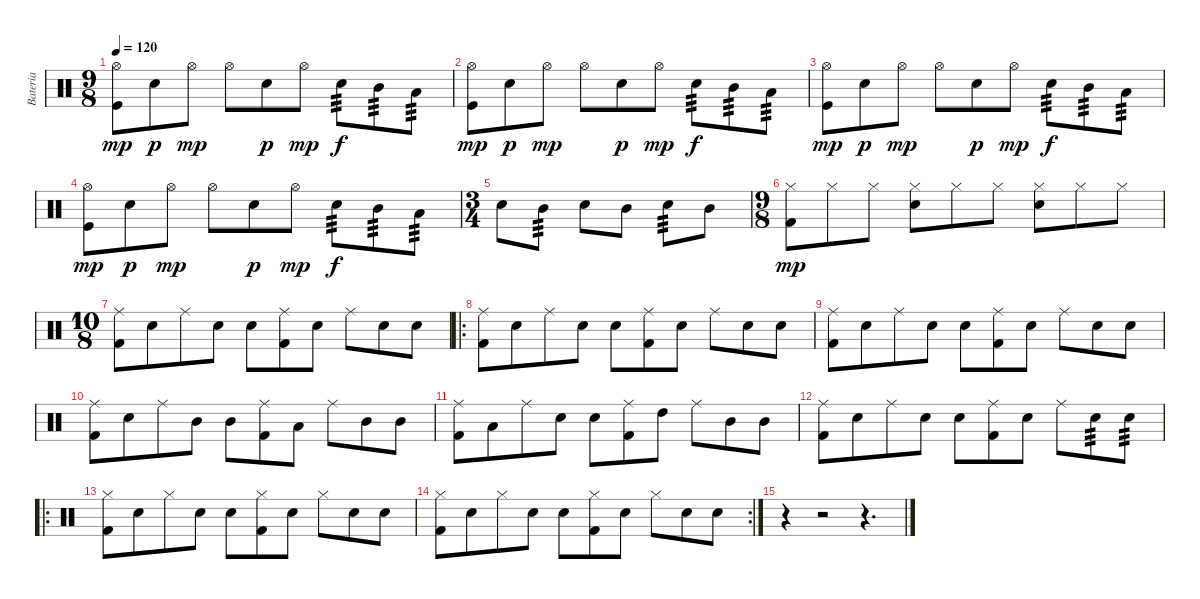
\track ("Bateria" "Bateria") {instrument percussion}
\staff {score}
\articulation defaults
\ts (9 8)
\tempo 120
\clef neutral
\ks c
("Hi-Hat (open)" "Kick (hit)").8{dy mp} "Snare (hit) 2".8{dy p} "Hi-Hat (open)".8{dy mp} "Hi-Hat (open)".8 "Snare (hit) 2".8{dy p} "Hi-Hat (open)".8{dy mp} "Snare (hit) 2".8{tp 3 dy f} "Mid Tom (hit)".8{tp 3} "Low Tom (hit)".8{tp 3} |
("Hi-Hat (open)" "Kick (hit)").8{dy mp} "Snare (hit) 2".8{dy p} "Hi-Hat (open)".8{dy mp} "Hi-Hat (open)".8 "Snare (hit) 2".8{dy p} "Hi-Hat (open)".8{dy mp} "Snare (hit) 2".8{tp 3 dy f} "Mid Tom (hit)".8{tp 3} "Low Tom (hit)".8{tp 3} |
("Hi-Hat (open)" "Kick (hit)").8{dy mp} "Snare (hit) 2".8{dy p} "Hi-Hat (open)".8{dy mp} "Hi-Hat (open)".8 "Snare (hit) 2".8{dy p} "Hi-Hat (open)".8{dy mp} "Snare (hit) 2".8{tp 3 dy f} "Mid Tom (hit)".8{tp 3} "Low Tom (hit)".8{tp 3} |
("Hi-Hat (open)" "Kick (hit)").8{dy mp} "Snare (hit) 2".8{dy p} "Hi-Hat (open)".8{dy mp} "Hi-Hat (open)".8 "Snare (hit) 2".8{dy p} "Hi-Hat (open)".8{dy mp} "Snare (hit) 2".8{tp 3 dy f} "Mid Tom (hit)".8{tp 3} "Low Tom (hit)".8{tp 3} |
\ts (3 4)
"Snare (hit) 2".8 "Mid Tom (hit)".8{tp 3} "Snare (hit) 2".8 "Mid Tom (hit)".8 "Snare (hit) 2".8{tp 3} "Mid Tom (hit)".8 |
\ts (9 8)
("Hi-Hat (closed)" "Kick (hit) 2").8{dy mp} "Hi-Hat (closed)".8 "Hi-Hat (closed)".8 ("Hi-Hat (closed)" "Snare (hit) 2").8 "Hi-Hat (closed)".8 "Hi-Hat (closed)".8 ("Hi-Hat (closed)" "Snare (hit) 2").8 "Hi-Hat (closed)".8 "Hi-Hat (closed)".8 |
\ts (10 8)
("Ride (middle)" "Kick (hit) 2").8 "Snare (hit) 2".8 "Ride (middle)".8 "Snare (hit) 2".8 "Snare (hit) 2".8 ("Ride (middle)" "Kick (hit) 2").8 "Snare (hit) 2".8 "Ride (middle)".8 "Snare (hit) 2".8 "Snare (hit) 2".8 |
\ro
("Ride (middle)" "Kick (hit) 2").8 "Snare (hit) 2".8 "Ride (middle)".8 "Snare (hit) 2".8 "Snare (hit) 2".8 ("Ride (middle)" "Kick (hit) 2").8 "Snare (hit) 2".8 "Ride (middle)".8 "Snare (hit) 2".8 "Snare (hit) 2".8 |
("Ride (middle)" "Kick (hit) 2").8 "Snare (hit) 2".8 "Ride (middle)".8 "Snare (hit) 2".8 "Snare (hit) 2".8 ("Ride (middle)" "Kick (hit) 2").8 "Snare (hit) 2".8 "Ride (middle)".8 "Snare (hit) 2".8 "Snare (hit) 2".8 |
("Ride (middle)" "Kick (hit) 2").8 "Snare (hit) 2".8 "Ride (middle)".8 "Mid Tom (hit)".8 "Mid Tom (hit)".8 ("Ride (middle)" "Kick (hit) 2").8 "Low Tom (hit)".8 "Ride (middle)".8 "Mid Tom (hit)".8 "Mid Tom (hit)".8 |
("Ride (middle)" "Kick (hit) 2").8 "Low Tom (hit)".8 "Ride (middle)".8 "Snare (hit) 2".8 "Snare (hit) 2".8 ("Ride (middle)" "Kick (hit) 2").8 "High Tom (hit)".8 "Ride (middle)".8 "Mid Tom (hit)".8 "Mid Tom (hit)".8 |
("Ride (middle)" "Kick (hit) 2").8 "Snare (hit) 2".8 "Ride (middle)".8 "Snare (hit) 2".8 "Snare (hit) 2".8 ("Ride (middle)" "Kick (hit) 2").8 "Snare (hit) 2".8 "Ride (middle)".8 "Snare (hit) 2".8{tp 3} "Snare (hit) 2".8{tp 3} |
\ro
("Hi-Hat (closed)" "Kick (hit) 2").8 "Snare (hit) 2".8 "Hi-Hat (closed)".8 "Snare (hit) 2".8 "Snare (hit) 2".8 ("Hi-Hat (closed)" "Kick (hit) 2").8 "Snare (hit) 2".8 "Hi-Hat (closed)".8 "Snare (hit) 2".8 "Snare (hit) 2".8 |
\rc 2
("Hi-Hat (closed)" "Kick (hit) 2").8 "Snare (hit) 2".8 "Hi-Hat (closed)".8 "Snare (hit) 2".8 "Snare (hit) 2".8 ("Hi-Hat (closed)" "Kick (hit) 2").8 "Snare (hit) 2".8 "Hi-Hat (closed)".8 "Snare (hit) 2".8 "Snare (hit) 2".8 |
r.4 r.2 r.4{d}
